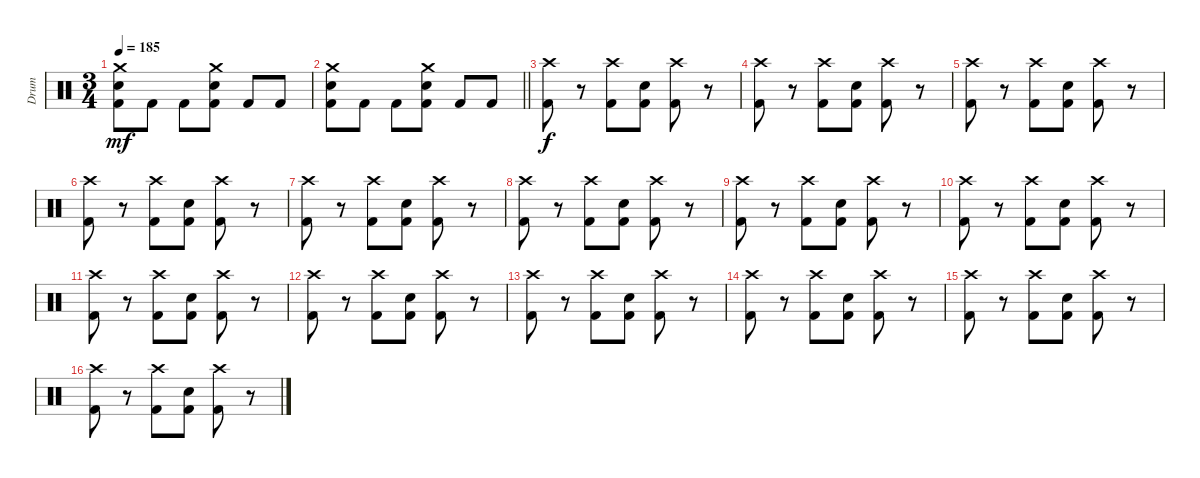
\track ("Drum" "Drum") {instrument percussion}
\staff {score}
\articulation defaults
\ts (3 4)
\tempo 185
\clef neutral
\ks c
("Crash medium (hit)" "Electric Snare (hit)" "Kick (hit) 2").8{dy mf} "Kick (hit) 2".8 "Kick (hit) 2".8 ("Crash medium (hit)" "Electric Snare (hit)" "Kick (hit) 2").8 "Kick (hit) 2".8 "Kick (hit) 2".8 |
\barLineRight lightlight
("Crash medium (hit)" "Electric Snare (hit)" "Kick (hit) 2").8 "Kick (hit) 2".8 "Kick (hit) 2".8 ("Crash medium (hit)" "Electric Snare (hit)" "Kick (hit) 2").8 "Kick (hit) 2".8 "Kick (hit) 2".8 |
("Crash high (hit)" "Kick (hit) 2").8{dy f} r.8 ("Crash high (hit)" "Kick (hit) 2").8 ("Electric Snare (hit)" "Kick (hit) 2").8 ("Crash high (hit)" "Kick (hit) 2").8 r.8 |
("Crash high (hit)" "Kick (hit) 2").8 r.8 ("Crash high (hit)" "Kick (hit) 2").8 ("Electric Snare (hit)" "Kick (hit) 2").8 ("Crash high (hit)" "Kick (hit) 2").8 r.8 |
("Crash high (hit)" "Kick (hit) 2").8 r.8 ("Crash high (hit)" "Kick (hit) 2").8 ("Electric Snare (hit)" "Kick (hit) 2").8 ("Crash high (hit)" "Kick (hit) 2").8 r.8 |
("Crash high (hit)" "Kick (hit) 2").8 r.8 ("Crash high (hit)" "Kick (hit) 2").8 ("Electric Snare (hit)" "Kick (hit) 2").8 ("Crash high (hit)" "Kick (hit) 2").8 r.8 |
("Crash high (hit)" "Kick (hit) 2").8 r.8 ("Crash high (hit)" "Kick (hit) 2").8 ("Electric Snare (hit)" "Kick (hit) 2").8 ("Crash high (hit)" "Kick (hit) 2").8 r.8 |
("Crash high (hit)" "Kick (hit) 2").8 r.8 ("Crash high (hit)" "Kick (hit) 2").8 ("Electric Snare (hit)" "Kick (hit) 2").8 ("Crash high (hit)" "Kick (hit) 2").8 r.8 |
("Crash high (hit)" "Kick (hit) 2").8 r.8 ("Crash high (hit)" "Kick (hit) 2").8 ("Electric Snare (hit)" "Kick (hit) 2").8 ("Crash high (hit)" "Kick (hit) 2").8 r.8 |
("Crash high (hit)" "Kick (hit) 2").8 r.8 ("Crash high (hit)" "Kick (hit) 2").8 ("Electric Snare (hit)" "Kick (hit) 2").8 ("Crash high (hit)" "Kick (hit) 2").8 r.8 |
("Crash high (hit)" "Kick (hit) 2").8 r.8 ("Crash high (hit)" "Kick (hit) 2").8 ("Electric Snare (hit)" "Kick (hit) 2").8 ("Crash high (hit)" "Kick (hit) 2").8 r.8 |
("Crash high (hit)" "Kick (hit) 2").8 r.8 ("Crash high (hit)" "Kick (hit) 2").8 ("Electric Snare (hit)" "Kick (hit) 2").8 ("Crash high (hit)" "Kick (hit) 2").8 r.8 |
("Crash high (hit)" "Kick (hit) 2").8 r.8 ("Crash high (hit)" "Kick (hit) 2").8 ("Electric Snare (hit)" "Kick (hit) 2").8 ("Crash high (hit)" "Kick (hit) 2").8 r.8 |
("Crash high (hit)" "Kick (hit) 2").8 r.8 ("Crash high (hit)" "Kick (hit) 2").8 ("Electric Snare (hit)" "Kick (hit) 2").8 ("Crash high (hit)" "Kick (hit) 2").8 r.8 |
("Crash high (hit)" "Kick (hit) 2").8 r.8 ("Crash high (hit)" "Kick (hit) 2").8 ("Electric Snare (hit)" "Kick (hit) 2").8 ("Crash high (hit)" "Kick (hit) 2").8 r.8 |
("Crash high (hit)" "Kick (hit) 2").8 r.8 ("Crash high (hit)" "Kick (hit) 2").8 ("Electric Snare (hit)" "Kick (hit) 2").8 ("Crash high (hit)" "Kick (hit) 2").8 r.8
